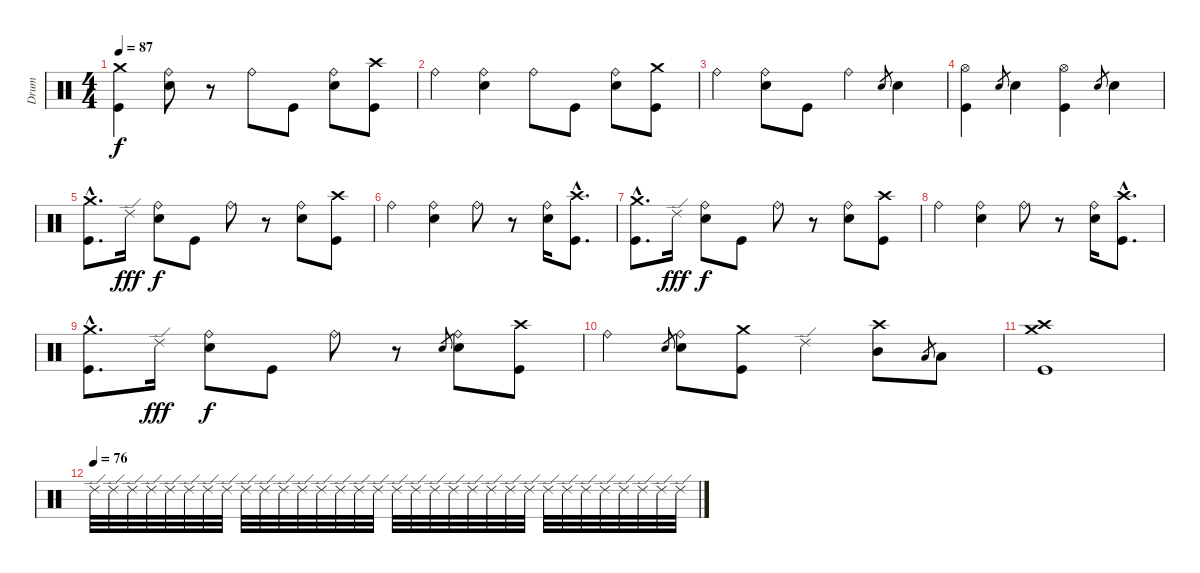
\track ("Drum" "Drum") {instrument percussion}
\staff {score}
\articulation defaults
\ts (4 4)
\tempo 87
\clef neutral
\ks c
("Crash medium (hit)" "Kick (hit)").4{dy f} ("Ride (bell)" "Snare (hit) 2").8 r.8 "Ride (bell)".8 "Kick (hit)".8 ("Ride (bell)" "Snare (hit) 2").8 ("Crash high (hit)" "Kick (hit)").8 |
"Ride (bell)".4 ("Ride (bell)" "Snare (hit) 2").4 "Ride (bell)".8 "Kick (hit)".8 ("Ride (bell)" "Snare (hit) 2").8 ("Crash medium (hit)" "Kick (hit)").8 |
"Ride (bell)".4 ("Ride (bell)" "Snare (hit) 2").8 "Kick (hit)".8 "Ride (bell)".4 "Snare (hit) 2".8{gr} "Snare (hit) 2".4 |
("Hi-Hat (open)" "Kick (hit)").4 "Snare (hit) 2".8{gr} "Snare (hit) 2".4 ("Hi-Hat (open)" "Kick (hit)").4 "Snare (hit) 2".8{gr} "Snare (hit) 2".4 |
("Crash medium (hit)"{hac} "Kick (hit)"{hac}).8{d} "Ride (edge) 2".16{dy fff} ("Ride (bell)" "Snare (hit) 2").8{dy f} "Kick (hit)".8 "Ride (bell)".8 r.8 ("Ride (bell)" "Snare (hit) 2").8 ("Crash high (hit)" "Kick (hit)").8 |
"Ride (bell)".4 ("Ride (bell)" "Snare (hit) 2").4 "Ride (bell)".8 r.8 ("Ride (bell)" "Snare (hit) 2").16 ("Crash high (hit)"{hac} "Kick (hit)"{hac}).8{d} |
("Crash medium (hit)"{hac} "Kick (hit)"{hac}).8{d} "Ride (edge) 2".16{dy fff} ("Ride (bell)" "Snare (hit) 2").8{dy f} "Kick (hit)".8 "Ride (bell)".8 r.8 ("Ride (bell)" "Snare (hit) 2").8 ("Crash high (hit)" "Kick (hit)").8 |
"Ride (bell)".4 ("Ride (bell)" "Snare (hit) 2").4 "Ride (bell)".8 r.8 ("Ride (bell)" "Snare (hit) 2").16 ("Crash high (hit)"{hac} "Kick (hit)"{hac}).8{d} |
("Crash medium (hit)"{hac} "Kick (hit)"{hac}).8{d} "Ride (edge) 2".16{dy fff} ("Ride (bell)" "Snare (hit) 2").8{dy f} "Kick (hit)".8 "Ride (bell)".8 r.8 "Snare (hit) 2".8{gr} ("Ride (bell)" "Snare (hit) 2").8 ("Crash high (hit)" "Kick (hit)").8 |
"Ride (bell)".4 "Snare (hit) 2".8{gr} ("Ride (bell)" "Snare (hit) 2").8 ("Crash medium (hit)" "Kick (hit)").8 "Ride (edge) 2".4 ("Crash high (hit)" "Mid Tom (hit)").8 "Low Tom (hit)".8{gr} "Low Tom (hit)".8 |
("Crash high (hit)" "Kick (hit)" "Crash medium (hit)").1 |
\tempo (76)
"Ride (edge) 2".32{volume 3} "Ride (edge) 2".32{volume 13} "Ride (edge) 2".32 "Ride (edge) 2".32 "Ride (edge) 2".32 "Ride (edge) 2".32 "Ride (edge) 2".32 "Ride (edge) 2".32 "Ride (edge) 2".32 "Ride (edge) 2".32 "Ride (edge) 2".32 "Ride (edge) 2".32 "Ride (edge) 2".32 "Ride (edge) 2".32 "Ride (edge) 2".32 "Ride (edge) 2".32 "Ride (edge) 2".32 "Ride (edge) 2".32 "Ride (edge) 2".32 "Ride (edge) 2".32 "Ride (edge) 2".32 "Ride (edge) 2".32 "Ride (edge) 2".32 "Ride (edge) 2".32 "Ride (edge) 2".32 "Ride (edge) 2".32 "Ride (edge) 2".32 "Ride (edge) 2".32 "Ride (edge) 2".32 "Ride (edge) 2".32 "Ride (edge) 2".32 "Ride (edge) 2".32
